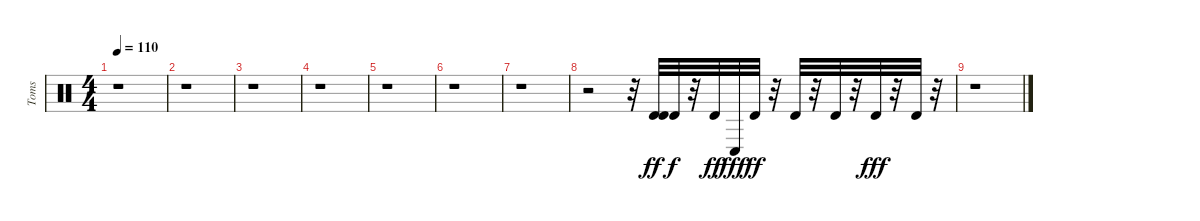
\track ("Toms" "Toms") {instrument percussion}
\staff {score}
\articulation defaults
\ts (4 4)
\tempo 110
\clef neutral
\ks c
r.1{dy fff} |
r.1 |
r.1 |
r.1 |
r.1 |
r.1 |
r.1 |
r.2 r.32 ("Timbale high (hit)" "Timbale high (hit)").32{dy ff} "Timbale high (hit)".32{dy f} r.32 "Timbale high (hit)".32{dy ff} "Conga low (hit)".32{dy fff} "Timbale high (hit)".32{dy ff} r.32 "Timbale high (hit)".32 r.32 "Timbale high (hit)".32 r.32 "Timbale high (hit)".32{dy fff} r.32 "Timbale high (hit)".32 r.32 |
r.1
